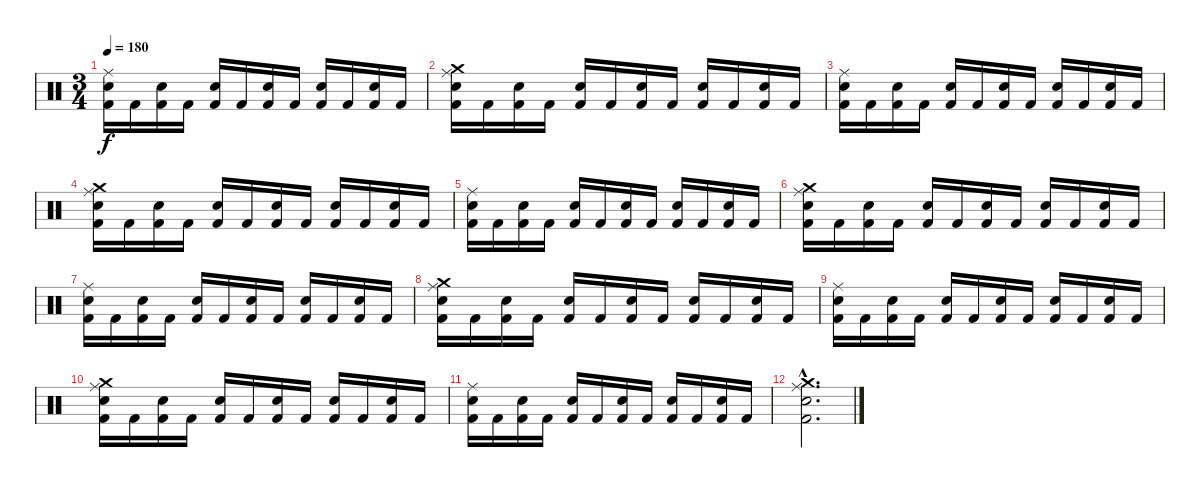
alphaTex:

\track "" {instrument percussion}
\staff {score}
\articulation defaults
\ts (3 4)
\tempo 180
\clef neutral
\ks c
("Ride (middle)" "Snare (hit) 2" "Kick (hit) 2").16{dy f} "Kick (hit) 2".16 ("Snare (hit) 2" "Kick (hit) 2").16 "Kick (hit) 2".16 ("Snare (hit) 2" "Kick (hit) 2").16 "Kick (hit) 2".16 ("Snare (hit) 2" "Kick (hit) 2").16 "Kick (hit) 2".16 ("Snare (hit) 2" "Kick (hit) 2").16 "Kick (hit) 2".16 ("Snare (hit) 2" "Kick (hit) 2").16 "Kick (hit) 2".16 |
("Crash medium (hit)" "Ride (middle)" "Snare (hit) 2" "Kick (hit) 2").16 "Kick (hit) 2".16 ("Snare (hit) 2" "Kick (hit) 2").16 "Kick (hit) 2".16 ("Snare (hit) 2" "Kick (hit) 2").16 "Kick (hit) 2".16 ("Snare (hit) 2" "Kick (hit) 2").16 "Kick (hit) 2".16 ("Snare (hit) 2" "Kick (hit) 2").16 "Kick (hit) 2".16 ("Snare (hit) 2" "Kick (hit) 2").16 "Kick (hit) 2".16 |
("Ride (middle)" "Snare (hit) 2" "Kick (hit) 2").16 "Kick (hit) 2".16 ("Snare (hit) 2" "Kick (hit) 2").16 "Kick (hit) 2".16 ("Snare (hit) 2" "Kick (hit) 2").16 "Kick (hit) 2".16 ("Snare (hit) 2" "Kick (hit) 2").16 "Kick (hit) 2".16 ("Snare (hit) 2" "Kick (hit) 2").16 "Kick (hit) 2".16 ("Snare (hit) 2" "Kick (hit) 2").16 "Kick (hit) 2".16 |
("Crash medium (hit)" "Ride (middle)" "Snare (hit) 2" "Kick (hit) 2").16 "Kick (hit) 2".16 ("Snare (hit) 2" "Kick (hit) 2").16 "Kick (hit) 2".16 ("Snare (hit) 2" "Kick (hit) 2").16 "Kick (hit) 2".16 ("Snare (hit) 2" "Kick (hit) 2").16 "Kick (hit) 2".16 ("Snare (hit) 2" "Kick (hit) 2").16 "Kick (hit) 2".16 ("Snare (hit) 2" "Kick (hit) 2").16 "Kick (hit) 2".16 |
("Ride (middle)" "Snare (hit) 2" "Kick (hit) 2").16 "Kick (hit) 2".16 ("Snare (hit) 2" "Kick (hit) 2").16 "Kick (hit) 2".16 ("Snare (hit) 2" "Kick (hit) 2").16 "Kick (hit) 2".16 ("Snare (hit) 2" "Kick (hit) 2").16 "Kick (hit) 2".16 ("Snare (hit) 2" "Kick (hit) 2").16 "Kick (hit) 2".16 ("Snare (hit) 2" "Kick (hit) 2").16 "Kick (hit) 2".16 |
("Crash medium (hit)" "Ride (middle)" "Snare (hit) 2" "Kick (hit) 2").16 "Kick (hit) 2".16 ("Snare (hit) 2" "Kick (hit) 2").16 "Kick (hit) 2".16 ("Snare (hit) 2" "Kick (hit) 2").16 "Kick (hit) 2".16 ("Snare (hit) 2" "Kick (hit) 2").16 "Kick (hit) 2".16 ("Snare (hit) 2" "Kick (hit) 2").16 "Kick (hit) 2".16 ("Snare (hit) 2" "Kick (hit) 2").16 "Kick (hit) 2".16 |
("Ride (middle)" "Snare (hit) 2" "Kick (hit) 2").16 "Kick (hit) 2".16 ("Snare (hit) 2" "Kick (hit) 2").16 "Kick (hit) 2".16 ("Snare (hit) 2" "Kick (hit) 2").16 "Kick (hit) 2".16 ("Snare (hit) 2" "Kick (hit) 2").16 "Kick (hit) 2".16 ("Snare (hit) 2" "Kick (hit) 2").16 "Kick (hit) 2".16 ("Snare (hit) 2" "Kick (hit) 2").16 "Kick (hit) 2".16 |
("Crash medium (hit)" "Ride (middle)" "Snare (hit) 2" "Kick (hit) 2").16 "Kick (hit) 2".16 ("Snare (hit) 2" "Kick (hit) 2").16 "Kick (hit) 2".16 ("Snare (hit) 2" "Kick (hit) 2").16 "Kick (hit) 2".16 ("Snare (hit) 2" "Kick (hit) 2").16 "Kick (hit) 2".16 ("Snare (hit) 2" "Kick (hit) 2").16 "Kick (hit) 2".16 ("Snare (hit) 2" "Kick (hit) 2").16 "Kick (hit) 2".16 |
("Ride (middle)" "Snare (hit) 2" "Kick (hit) 2").16 "Kick (hit) 2".16 ("Snare (hit) 2" "Kick (hit) 2").16 "Kick (hit) 2".16 ("Snare (hit) 2" "Kick (hit) 2").16 "Kick (hit) 2".16 ("Snare (hit) 2" "Kick (hit) 2").16 "Kick (hit) 2".16 ("Snare (hit) 2" "Kick (hit) 2").16 "Kick (hit) 2".16 ("Snare (hit) 2" "Kick (hit) 2").16 "Kick (hit) 2".16 |
("Crash medium (hit)" "Ride (middle)" "Snare (hit) 2" "Kick (hit) 2").16 "Kick (hit) 2".16 ("Snare (hit) 2" "Kick (hit) 2").16 "Kick (hit) 2".16 ("Snare (hit) 2" "Kick (hit) 2").16 "Kick (hit) 2".16 ("Snare (hit) 2" "Kick (hit) 2").16 "Kick (hit) 2".16 ("Snare (hit) 2" "Kick (hit) 2").16 "Kick (hit) 2".16 ("Snare (hit) 2" "Kick (hit) 2").16 "Kick (hit) 2".16 |
("Ride (middle)" "Snare (hit) 2" "Kick (hit) 2").16 "Kick (hit) 2".16 ("Snare (hit) 2" "Kick (hit) 2").16 "Kick (hit) 2".16 ("Snare (hit) 2" "Kick (hit) 2").16 "Kick (hit) 2".16 ("Snare (hit) 2" "Kick (hit) 2").16 "Kick (hit) 2".16 ("Snare (hit) 2" "Kick (hit) 2").16 "Kick (hit) 2".16 ("Snare (hit) 2" "Kick (hit) 2").16 "Kick (hit) 2".16 |
("Ride (middle)"{hac} "Crash medium (hit)"{hac} "Snare (hit) 2"{hac} "Kick (hit) 2"{hac}).2{d}
